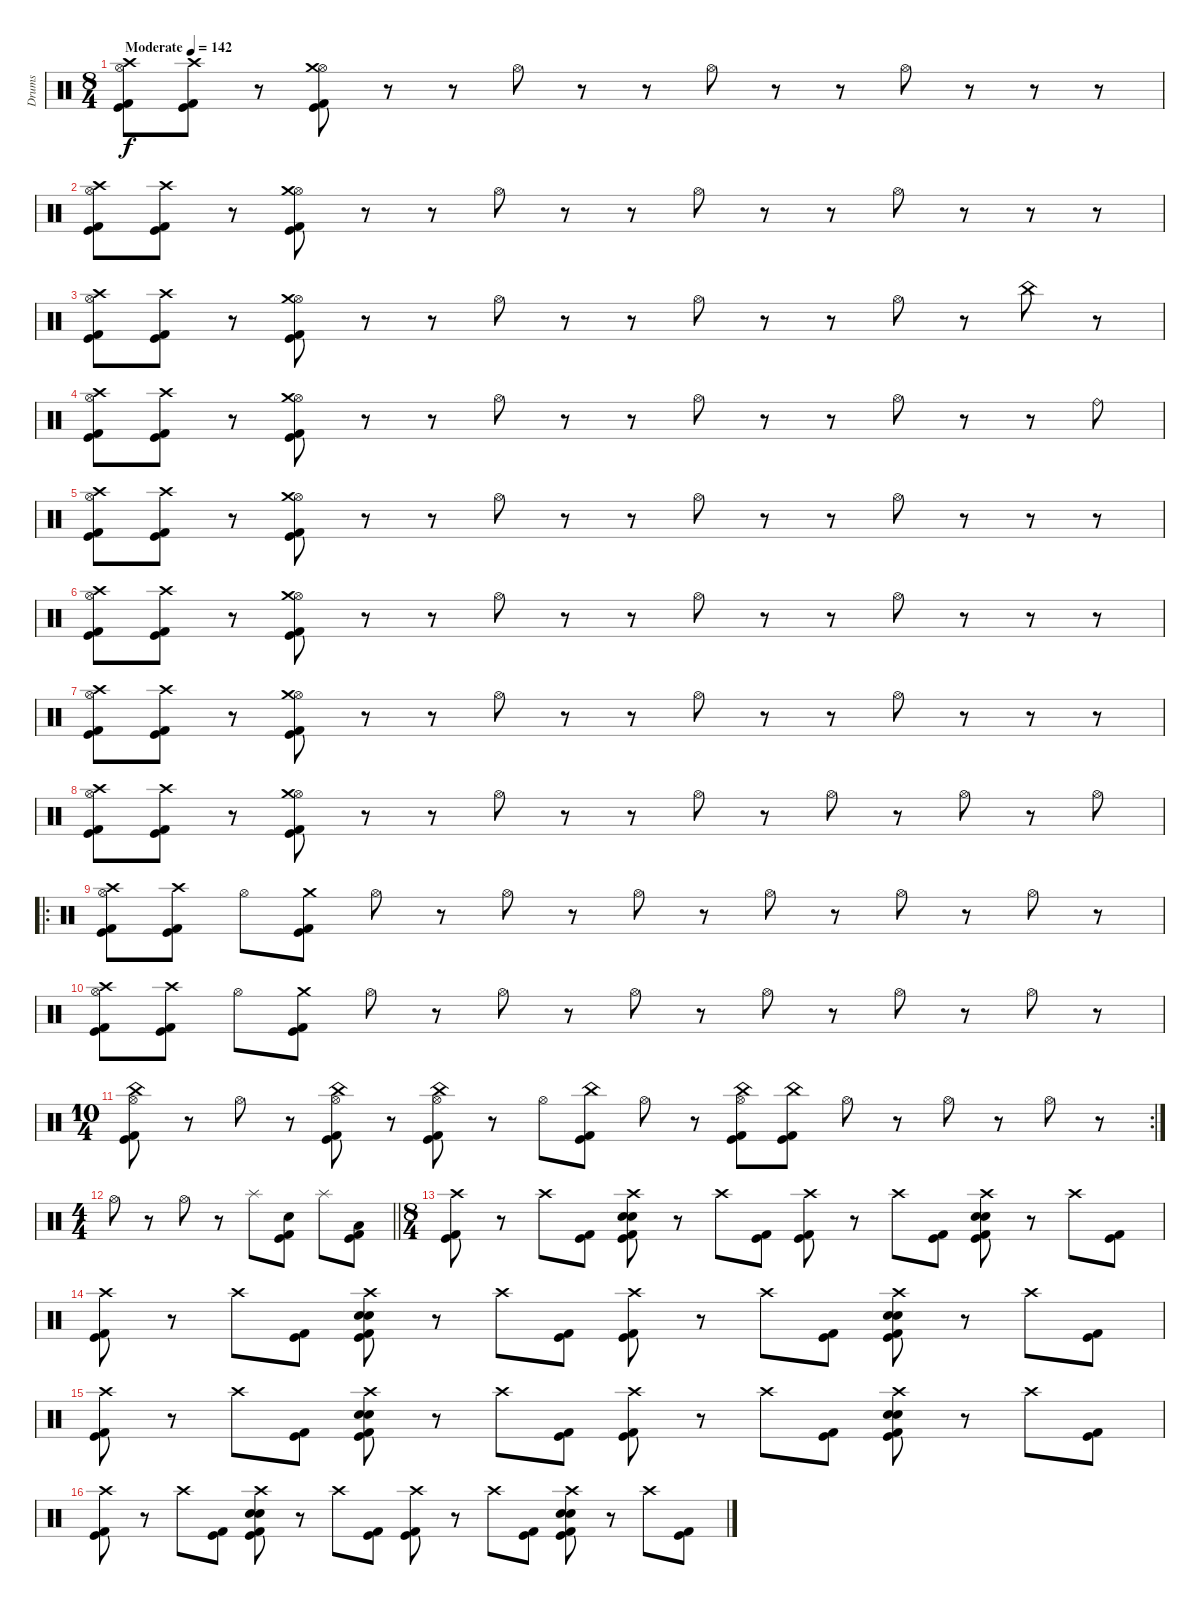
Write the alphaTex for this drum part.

\track ("Drums" "Drums") {instrument percussion}
\staff {score}
\articulation defaults
\ts (8 4)
\tempo (142 "Moderate")
\clef neutral
\ks c
("Hi-Hat (open)" "Crash high (hit)" "Kick (hit)" "Kick (hit) 2").8{dy f} ("Crash high (hit)" "Kick (hit)" "Kick (hit) 2").8 r.8 ("Hi-Hat (open)" "Crash medium (hit)" "Kick (hit)" "Kick (hit) 2").8 r.8 r.8 "Hi-Hat (open)".8 r.8 r.8 "Hi-Hat (open)".8 r.8 r.8 "Hi-Hat (open)".8 r.8 r.8 r.8 |
("Hi-Hat (open)" "Crash high (hit)" "Kick (hit)" "Kick (hit) 2").8 ("Crash high (hit)" "Kick (hit)" "Kick (hit) 2").8 r.8 ("Hi-Hat (open)" "Crash medium (hit)" "Kick (hit)" "Kick (hit) 2").8 r.8 r.8 "Hi-Hat (open)".8 r.8 r.8 "Hi-Hat (open)".8 r.8 r.8 "Hi-Hat (open)".8 r.8 r.8 r.8 |
("Hi-Hat (open)" "Crash high (hit)" "Kick (hit)" "Kick (hit) 2").8 ("Crash high (hit)" "Kick (hit)" "Kick (hit) 2").8 r.8 ("Hi-Hat (open)" "Crash medium (hit)" "Kick (hit)" "Kick (hit) 2").8 r.8 r.8 "Hi-Hat (open)".8 r.8 r.8 "Hi-Hat (open)".8 r.8 r.8 "Hi-Hat (open)".8 r.8 "China (hit)".8 r.8 |
("Hi-Hat (open)" "Crash high (hit)" "Kick (hit)" "Kick (hit) 2").8 ("Crash high (hit)" "Kick (hit)" "Kick (hit) 2").8 r.8 ("Hi-Hat (open)" "Crash medium (hit)" "Kick (hit)" "Kick (hit) 2").8 r.8 r.8 "Hi-Hat (open)".8 r.8 r.8 "Hi-Hat (open)".8 r.8 r.8 "Hi-Hat (open)".8 r.8 r.8 "Ride (bell)".8 |
("Hi-Hat (open)" "Crash high (hit)" "Kick (hit)" "Kick (hit) 2").8 ("Crash high (hit)" "Kick (hit)" "Kick (hit) 2").8 r.8 ("Hi-Hat (open)" "Crash medium (hit)" "Kick (hit)" "Kick (hit) 2").8 r.8 r.8 "Hi-Hat (open)".8 r.8 r.8 "Hi-Hat (open)".8 r.8 r.8 "Hi-Hat (open)".8 r.8 r.8 r.8 |
("Hi-Hat (open)" "Crash high (hit)" "Kick (hit)" "Kick (hit) 2").8 ("Crash high (hit)" "Kick (hit)" "Kick (hit) 2").8 r.8 ("Hi-Hat (open)" "Crash medium (hit)" "Kick (hit)" "Kick (hit) 2").8 r.8 r.8 "Hi-Hat (open)".8 r.8 r.8 "Hi-Hat (open)".8 r.8 r.8 "Hi-Hat (open)".8 r.8 r.8 r.8 |
("Hi-Hat (open)" "Crash high (hit)" "Kick (hit)" "Kick (hit) 2").8 ("Crash high (hit)" "Kick (hit)" "Kick (hit) 2").8 r.8 ("Hi-Hat (open)" "Crash medium (hit)" "Kick (hit)" "Kick (hit) 2").8 r.8 r.8 "Hi-Hat (open)".8 r.8 r.8 "Hi-Hat (open)".8 r.8 r.8 "Hi-Hat (open)".8 r.8 r.8 r.8 |
("Hi-Hat (open)" "Crash high (hit)" "Kick (hit)" "Kick (hit) 2").8 ("Crash high (hit)" "Kick (hit)" "Kick (hit) 2").8 r.8 ("Hi-Hat (open)" "Crash medium (hit)" "Kick (hit)" "Kick (hit) 2").8 r.8 r.8 "Hi-Hat (open)".8 r.8 r.8 "Hi-Hat (open)".8 r.8 "Hi-Hat (open)".8 r.8 "Hi-Hat (open)".8 r.8 "Hi-Hat (open)".8 |
\ro
("Hi-Hat (open)" "Crash high (hit)" "Kick (hit)" "Kick (hit) 2").8 ("Crash high (hit)" "Kick (hit)" "Kick (hit) 2").8 "Hi-Hat (open)".8 ("Crash medium (hit)" "Kick (hit)" "Kick (hit) 2").8 "Hi-Hat (open)".8 r.8 "Hi-Hat (open)".8 r.8 "Hi-Hat (open)".8 r.8 "Hi-Hat (open)".8 r.8 "Hi-Hat (open)".8 r.8 "Hi-Hat (open)".8 r.8 |
("Hi-Hat (open)" "Crash high (hit)" "Kick (hit)" "Kick (hit) 2").8 ("Crash high (hit)" "Kick (hit)" "Kick (hit) 2").8 "Hi-Hat (open)".8 ("Crash medium (hit)" "Kick (hit)" "Kick (hit) 2").8 "Hi-Hat (open)".8 r.8 "Hi-Hat (open)".8 r.8 "Hi-Hat (open)".8 r.8 "Hi-Hat (open)".8 r.8 "Hi-Hat (open)".8 r.8 "Hi-Hat (open)".8 r.8 |
\rc 2
\ts (10 4)
("Hi-Hat (open)" "China (hit)" "Kick (hit)" "Kick (hit) 2").8 r.8 "Hi-Hat (open)".8 r.8 ("Hi-Hat (open)" "China (hit)" "Kick (hit)" "Kick (hit) 2").8 r.8 ("Hi-Hat (open)" "China (hit)" "Kick (hit)" "Kick (hit) 2").8 r.8 "Hi-Hat (open)".8 ("China (hit)" "Kick (hit)" "Kick (hit) 2").8 "Hi-Hat (open)".8 r.8 ("Hi-Hat (open)" "China (hit)" "Kick (hit)" "Kick (hit) 2").8 ("China (hit)" "Kick (hit)" "Kick (hit) 2").8 "Hi-Hat (open)".8 r.8 "Hi-Hat (open)".8 r.8 "Hi-Hat (open)".8 r.8 |
\ts (4 4)
\barLineRight lightlight "Hi-Hat (open)".8
r.8 "Hi-Hat (open)".8 r.8 "Splash (hit)".8 ("Snare (hit) 2" "Kick (hit)" "Kick (hit) 2").8 "Splash (hit)".8 ("Low Floor Tom (hit)" "Kick (hit)" "Kick (hit) 2").8 |
\ts (8 4)
("Crash high (hit)" "Kick (hit)" "Kick (hit) 2").8 r.8 "Crash high (hit)".8 ("Kick (hit)" "Kick (hit) 2").8 ("Crash high (hit)" "Snare (hit) 2" "Electric Snare (hit)" "Kick (hit)" "Kick (hit) 2").8 r.8 "Crash high (hit)".8 ("Kick (hit)" "Kick (hit) 2").8 ("Crash high (hit)" "Kick (hit)" "Kick (hit) 2").8 r.8 "Crash high (hit)".8 ("Kick (hit)" "Kick (hit) 2").8 ("Crash high (hit)" "Snare (hit) 2" "Electric Snare (hit)" "Kick (hit)" "Kick (hit) 2").8 r.8 "Crash high (hit)".8 ("Kick (hit)" "Kick (hit) 2").8 |
("Crash high (hit)" "Kick (hit)" "Kick (hit) 2").8 r.8 "Crash high (hit)".8 ("Kick (hit)" "Kick (hit) 2").8 ("Crash high (hit)" "Snare (hit) 2" "Electric Snare (hit)" "Kick (hit)" "Kick (hit) 2").8 r.8 "Crash high (hit)".8 ("Kick (hit)" "Kick (hit) 2").8 ("Crash high (hit)" "Kick (hit)" "Kick (hit) 2").8 r.8 "Crash high (hit)".8 ("Kick (hit)" "Kick (hit) 2").8 ("Crash high (hit)" "Snare (hit) 2" "Electric Snare (hit)" "Kick (hit)" "Kick (hit) 2").8 r.8 "Crash high (hit)".8 ("Kick (hit)" "Kick (hit) 2").8 |
("Crash high (hit)" "Kick (hit)" "Kick (hit) 2").8 r.8 "Crash high (hit)".8 ("Kick (hit)" "Kick (hit) 2").8 ("Crash high (hit)" "Snare (hit) 2" "Electric Snare (hit)" "Kick (hit)" "Kick (hit) 2").8 r.8 "Crash high (hit)".8 ("Kick (hit)" "Kick (hit) 2").8 ("Crash high (hit)" "Kick (hit)" "Kick (hit) 2").8 r.8 "Crash high (hit)".8 ("Kick (hit)" "Kick (hit) 2").8 ("Crash high (hit)" "Snare (hit) 2" "Electric Snare (hit)" "Kick (hit)" "Kick (hit) 2").8 r.8 "Crash high (hit)".8 ("Kick (hit)" "Kick (hit) 2").8 |
("Crash high (hit)" "Kick (hit)" "Kick (hit) 2").8 r.8 "Crash high (hit)".8 ("Kick (hit)" "Kick (hit) 2").8 ("Crash high (hit)" "Snare (hit) 2" "Electric Snare (hit)" "Kick (hit)" "Kick (hit) 2").8 r.8 "Crash high (hit)".8 ("Kick (hit)" "Kick (hit) 2").8 ("Crash high (hit)" "Kick (hit)" "Kick (hit) 2").8 r.8 "Crash high (hit)".8 ("Kick (hit)" "Kick (hit) 2").8 ("Crash high (hit)" "Snare (hit) 2" "Electric Snare (hit)" "Kick (hit)" "Kick (hit) 2").8 r.8 "Crash high (hit)".8 ("Kick (hit)" "Kick (hit) 2").8
